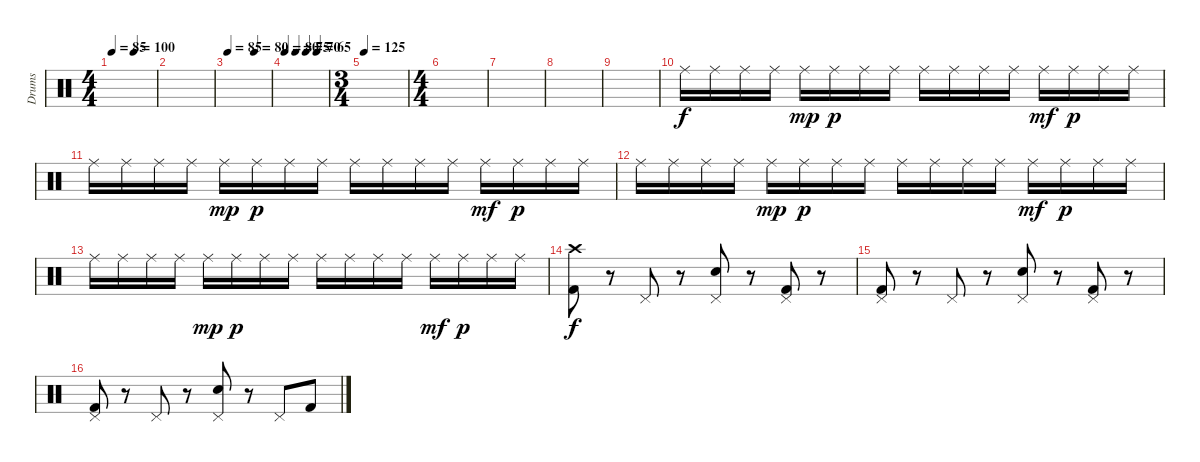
\track ("Drums" "Drums") {instrument percussion}
\staff {score}
\articulation defaults
\ts (4 4)
\tempo 85
\tempo (100 0.5)
\clef neutral
\ks c
|
|
\tempo 85
\tempo (80 0.625)
|
\tempo 80
\tempo (75 0.25)
\tempo (70 0.5)
\tempo (65 0.75)
|
\ts (3 4)
\tempo 125
|
\ts (4 4)
|
|
|
|
"Ride (middle)".16 "Ride (middle)".16 "Ride (middle)".16 "Ride (middle)".16 "Ride (middle)".16{dy mp} "Ride (middle)".16{dy p} "Ride (middle)".16 "Ride (middle)".16 "Ride (middle)".16 "Ride (middle)".16 "Ride (middle)".16 "Ride (middle)".16 "Ride (middle)".16{dy mf} "Ride (middle)".16{dy p} "Ride (middle)".16 "Ride (middle)".16 |
"Ride (middle)".16 "Ride (middle)".16 "Ride (middle)".16 "Ride (middle)".16 "Ride (middle)".16{dy mp} "Ride (middle)".16{dy p} "Ride (middle)".16 "Ride (middle)".16 "Ride (middle)".16 "Ride (middle)".16 "Ride (middle)".16 "Ride (middle)".16 "Ride (middle)".16{dy mf} "Ride (middle)".16{dy p} "Ride (middle)".16 "Ride (middle)".16 |
"Ride (middle)".16 "Ride (middle)".16 "Ride (middle)".16 "Ride (middle)".16 "Ride (middle)".16{dy mp} "Ride (middle)".16{dy p} "Ride (middle)".16 "Ride (middle)".16 "Ride (middle)".16 "Ride (middle)".16 "Ride (middle)".16 "Ride (middle)".16 "Ride (middle)".16{dy mf} "Ride (middle)".16{dy p} "Ride (middle)".16 "Ride (middle)".16 |
"Ride (middle)".16 "Ride (middle)".16 "Ride (middle)".16 "Ride (middle)".16 "Ride (middle)".16{dy mp} "Ride (middle)".16{dy p} "Ride (middle)".16 "Ride (middle)".16 "Ride (middle)".16 "Ride (middle)".16 "Ride (middle)".16 "Ride (middle)".16 "Ride (middle)".16{dy mf} "Ride (middle)".16{dy p} "Ride (middle)".16 "Ride (middle)".16 |
("Crash high (hit)" "Kick (hit) 2").8{dy f} r.8 "Pedal Hi-Hat (hit)".8 r.8 ("Pedal Hi-Hat (hit)" "Electric Snare (hit)").8 r.8 ("Pedal Hi-Hat (hit)" "Kick (hit) 2").8 r.8 |
("Pedal Hi-Hat (hit)" "Kick (hit) 2").8 r.8 "Pedal Hi-Hat (hit)".8 r.8 ("Pedal Hi-Hat (hit)" "Electric Snare (hit)").8 r.8 ("Pedal Hi-Hat (hit)" "Kick (hit) 2").8 r.8 |
("Pedal Hi-Hat (hit)" "Kick (hit) 2").8 r.8 "Pedal Hi-Hat (hit)".8 r.8 ("Pedal Hi-Hat (hit)" "Electric Snare (hit)").8 r.8 "Pedal Hi-Hat (hit)".8 "Kick (hit) 2".8
